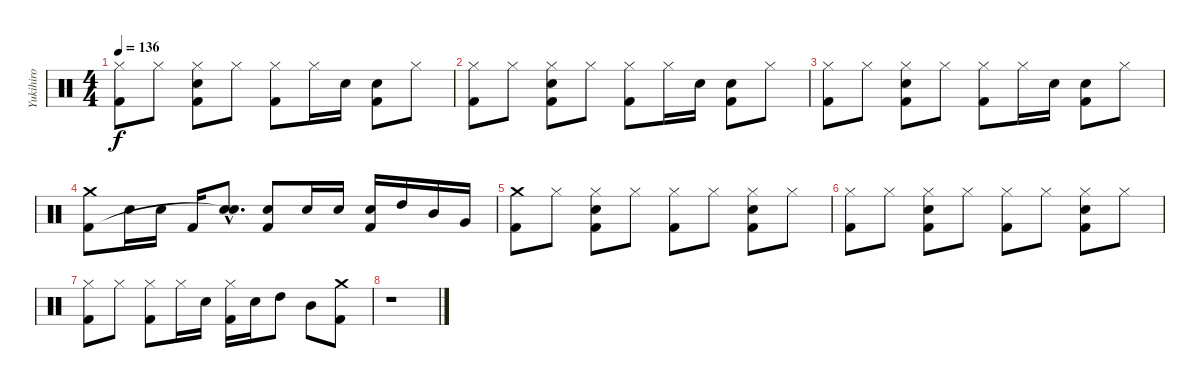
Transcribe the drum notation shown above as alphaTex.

\track ("Yukihiro" "Yukihiro") {instrument percussion}
\staff {score}
\articulation defaults
\ts (4 4)
\tempo 136
\clef neutral
\ks c
("Hi-Hat (closed)" "Kick (hit) 2").8{dy f} "Hi-Hat (closed)".8 ("Hi-Hat (closed)" "Snare (hit) 2" "Kick (hit) 2").8 "Hi-Hat (closed)".8 ("Hi-Hat (closed)" "Kick (hit) 2").8 "Hi-Hat (closed)".16 "Snare (hit) 2".16 ("Snare (hit) 2" "Kick (hit) 2").8 "Hi-Hat (closed)".8 |
("Hi-Hat (closed)" "Kick (hit) 2").8 "Hi-Hat (closed)".8 ("Hi-Hat (closed)" "Snare (hit) 2" "Kick (hit) 2").8 "Hi-Hat (closed)".8 ("Hi-Hat (closed)" "Kick (hit) 2").8 "Hi-Hat (closed)".16 "Snare (hit) 2".16 ("Snare (hit) 2" "Kick (hit) 2").8 "Hi-Hat (closed)".8 |
("Hi-Hat (closed)" "Kick (hit) 2").8 "Hi-Hat (closed)".8 ("Hi-Hat (closed)" "Snare (hit) 2" "Kick (hit) 2").8 "Hi-Hat (closed)".8 ("Hi-Hat (closed)" "Kick (hit) 2").8 "Hi-Hat (closed)".16 "Snare (hit) 2".16 ("Snare (hit) 2" "Kick (hit) 2").8 "Hi-Hat (closed)".8 |
("Crash medium (hit)" "Kick (hit) 2").8 "Snare (hit) 2".16 "Snare (hit) 2".16 "Kick (hit) 2".16 ("Snare (hit) 2"{hac} "Snare (hit)"{hac t}).8{d} ("Snare (hit) 2" "Kick (hit) 2").8 "Snare (hit) 2".16 "Snare (hit) 2".16 ("Snare (hit) 2" "Kick (hit) 2").16 "High Tom (hit)".16 "Mid Tom (hit)".16 "Very Low Tom (hit)".16 |
("Crash medium (hit)" "Kick (hit) 2").8 "Hi-Hat (closed)".8 ("Hi-Hat (closed)" "Snare (hit) 2" "Kick (hit) 2").8 "Hi-Hat (closed)".8 ("Hi-Hat (closed)" "Kick (hit) 2").8 "Hi-Hat (closed)".8 ("Hi-Hat (closed)" "Snare (hit) 2" "Kick (hit) 2").8 "Hi-Hat (closed)".8 |
("Hi-Hat (closed)" "Kick (hit) 2").8 "Hi-Hat (closed)".8 ("Hi-Hat (closed)" "Snare (hit) 2" "Kick (hit) 2").8 "Hi-Hat (closed)".8 ("Hi-Hat (closed)" "Kick (hit) 2").8 "Hi-Hat (closed)".8 ("Hi-Hat (closed)" "Snare (hit) 2" "Kick (hit) 2").8 "Hi-Hat (closed)".8 |
("Hi-Hat (closed)" "Kick (hit) 2").8 "Hi-Hat (closed)".8 ("Hi-Hat (closed)" "Kick (hit) 2").8 "Hi-Hat (closed)".16 "Snare (hit) 2".16 ("Hi-Hat (closed)" "Kick (hit) 2").16 "Snare (hit) 2".16 "High Tom (hit)".8 "Mid Tom (hit)".8 ("Crash medium (hit)" "Kick (hit) 2").8 |
r.1
